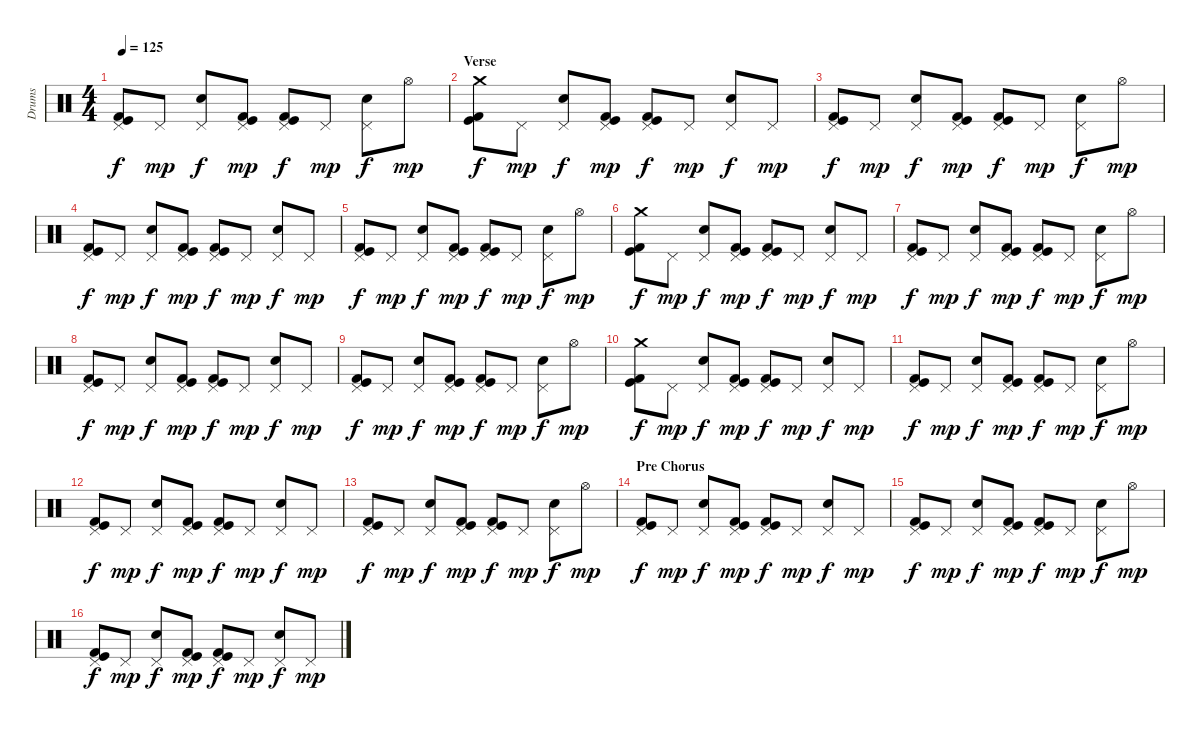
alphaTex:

\track ("Drums" "Drums") {instrument percussion}
\staff {score}
\articulation defaults
\ts (4 4)
\tempo 125
\clef neutral
\ks c
("Pedal Hi-Hat (hit)" "Kick (hit) 2" "Kick (hit)").8{dy f} "Pedal Hi-Hat (hit)".8{dy mp} ("Pedal Hi-Hat (hit)" "Electric Snare (hit)").8{dy f} ("Pedal Hi-Hat (hit)" "Kick (hit) 2" "Kick (hit)").8{dy mp} ("Pedal Hi-Hat (hit)" "Kick (hit) 2" "Kick (hit)").8{dy f} "Pedal Hi-Hat (hit)".8{dy mp} ("Pedal Hi-Hat (hit)" "Electric Snare (hit)").8{dy f} "Hi-Hat (open)".8{dy mp} |
\section ("" "Verse")
("Crash medium (hit)" "Kick (hit) 2" "Kick (hit)").8{dy f} "Pedal Hi-Hat (hit)".8{dy mp} ("Pedal Hi-Hat (hit)" "Electric Snare (hit)").8{dy f} ("Pedal Hi-Hat (hit)" "Kick (hit) 2" "Kick (hit)").8{dy mp} ("Pedal Hi-Hat (hit)" "Kick (hit) 2" "Kick (hit)").8{dy f} "Pedal Hi-Hat (hit)".8{dy mp} ("Pedal Hi-Hat (hit)" "Electric Snare (hit)").8{dy f} "Pedal Hi-Hat (hit)".8{dy mp} |
("Pedal Hi-Hat (hit)" "Kick (hit) 2" "Kick (hit)").8{dy f} "Pedal Hi-Hat (hit)".8{dy mp} ("Pedal Hi-Hat (hit)" "Electric Snare (hit)").8{dy f} ("Pedal Hi-Hat (hit)" "Kick (hit) 2" "Kick (hit)").8{dy mp} ("Pedal Hi-Hat (hit)" "Kick (hit) 2" "Kick (hit)").8{dy f} "Pedal Hi-Hat (hit)".8{dy mp} ("Pedal Hi-Hat (hit)" "Electric Snare (hit)").8{dy f} "Hi-Hat (open)".8{dy mp} |
("Pedal Hi-Hat (hit)" "Kick (hit) 2" "Kick (hit)").8{dy f} "Pedal Hi-Hat (hit)".8{dy mp} ("Pedal Hi-Hat (hit)" "Electric Snare (hit)").8{dy f} ("Pedal Hi-Hat (hit)" "Kick (hit) 2" "Kick (hit)").8{dy mp} ("Pedal Hi-Hat (hit)" "Kick (hit) 2" "Kick (hit)").8{dy f} "Pedal Hi-Hat (hit)".8{dy mp} ("Pedal Hi-Hat (hit)" "Electric Snare (hit)").8{dy f} "Pedal Hi-Hat (hit)".8{dy mp} |
("Pedal Hi-Hat (hit)" "Kick (hit) 2" "Kick (hit)").8{dy f} "Pedal Hi-Hat (hit)".8{dy mp} ("Pedal Hi-Hat (hit)" "Electric Snare (hit)").8{dy f} ("Pedal Hi-Hat (hit)" "Kick (hit) 2" "Kick (hit)").8{dy mp} ("Pedal Hi-Hat (hit)" "Kick (hit) 2" "Kick (hit)").8{dy f} "Pedal Hi-Hat (hit)".8{dy mp} ("Pedal Hi-Hat (hit)" "Electric Snare (hit)").8{dy f} "Hi-Hat (open)".8{dy mp} |
("Crash medium (hit)" "Kick (hit) 2" "Kick (hit)").8{dy f} "Pedal Hi-Hat (hit)".8{dy mp} ("Pedal Hi-Hat (hit)" "Electric Snare (hit)").8{dy f} ("Pedal Hi-Hat (hit)" "Kick (hit) 2" "Kick (hit)").8{dy mp} ("Pedal Hi-Hat (hit)" "Kick (hit) 2" "Kick (hit)").8{dy f} "Pedal Hi-Hat (hit)".8{dy mp} ("Pedal Hi-Hat (hit)" "Electric Snare (hit)").8{dy f} "Pedal Hi-Hat (hit)".8{dy mp} |
("Pedal Hi-Hat (hit)" "Kick (hit) 2" "Kick (hit)").8{dy f} "Pedal Hi-Hat (hit)".8{dy mp} ("Pedal Hi-Hat (hit)" "Electric Snare (hit)").8{dy f} ("Pedal Hi-Hat (hit)" "Kick (hit) 2" "Kick (hit)").8{dy mp} ("Pedal Hi-Hat (hit)" "Kick (hit) 2" "Kick (hit)").8{dy f} "Pedal Hi-Hat (hit)".8{dy mp} ("Pedal Hi-Hat (hit)" "Electric Snare (hit)").8{dy f} "Hi-Hat (open)".8{dy mp} |
("Pedal Hi-Hat (hit)" "Kick (hit) 2" "Kick (hit)").8{dy f} "Pedal Hi-Hat (hit)".8{dy mp} ("Pedal Hi-Hat (hit)" "Electric Snare (hit)").8{dy f} ("Pedal Hi-Hat (hit)" "Kick (hit) 2" "Kick (hit)").8{dy mp} ("Pedal Hi-Hat (hit)" "Kick (hit) 2" "Kick (hit)").8{dy f} "Pedal Hi-Hat (hit)".8{dy mp} ("Pedal Hi-Hat (hit)" "Electric Snare (hit)").8{dy f} "Pedal Hi-Hat (hit)".8{dy mp} |
("Pedal Hi-Hat (hit)" "Kick (hit) 2" "Kick (hit)").8{dy f} "Pedal Hi-Hat (hit)".8{dy mp} ("Pedal Hi-Hat (hit)" "Electric Snare (hit)").8{dy f} ("Pedal Hi-Hat (hit)" "Kick (hit) 2" "Kick (hit)").8{dy mp} ("Pedal Hi-Hat (hit)" "Kick (hit) 2" "Kick (hit)").8{dy f} "Pedal Hi-Hat (hit)".8{dy mp} ("Pedal Hi-Hat (hit)" "Electric Snare (hit)").8{dy f} "Hi-Hat (open)".8{dy mp} |
("Crash medium (hit)" "Kick (hit) 2" "Kick (hit)").8{dy f} "Pedal Hi-Hat (hit)".8{dy mp} ("Pedal Hi-Hat (hit)" "Electric Snare (hit)").8{dy f} ("Pedal Hi-Hat (hit)" "Kick (hit) 2" "Kick (hit)").8{dy mp} ("Pedal Hi-Hat (hit)" "Kick (hit) 2" "Kick (hit)").8{dy f} "Pedal Hi-Hat (hit)".8{dy mp} ("Pedal Hi-Hat (hit)" "Electric Snare (hit)").8{dy f} "Pedal Hi-Hat (hit)".8{dy mp} |
("Pedal Hi-Hat (hit)" "Kick (hit) 2" "Kick (hit)").8{dy f} "Pedal Hi-Hat (hit)".8{dy mp} ("Pedal Hi-Hat (hit)" "Electric Snare (hit)").8{dy f} ("Pedal Hi-Hat (hit)" "Kick (hit) 2" "Kick (hit)").8{dy mp} ("Pedal Hi-Hat (hit)" "Kick (hit) 2" "Kick (hit)").8{dy f} "Pedal Hi-Hat (hit)".8{dy mp} ("Pedal Hi-Hat (hit)" "Electric Snare (hit)").8{dy f} "Hi-Hat (open)".8{dy mp} |
("Pedal Hi-Hat (hit)" "Kick (hit) 2" "Kick (hit)").8{dy f} "Pedal Hi-Hat (hit)".8{dy mp} ("Pedal Hi-Hat (hit)" "Electric Snare (hit)").8{dy f} ("Pedal Hi-Hat (hit)" "Kick (hit) 2" "Kick (hit)").8{dy mp} ("Pedal Hi-Hat (hit)" "Kick (hit) 2" "Kick (hit)").8{dy f} "Pedal Hi-Hat (hit)".8{dy mp} ("Pedal Hi-Hat (hit)" "Electric Snare (hit)").8{dy f} "Pedal Hi-Hat (hit)".8{dy mp} |
("Pedal Hi-Hat (hit)" "Kick (hit) 2" "Kick (hit)").8{dy f} "Pedal Hi-Hat (hit)".8{dy mp} ("Pedal Hi-Hat (hit)" "Electric Snare (hit)").8{dy f} ("Pedal Hi-Hat (hit)" "Kick (hit) 2" "Kick (hit)").8{dy mp} ("Pedal Hi-Hat (hit)" "Kick (hit) 2" "Kick (hit)").8{dy f} "Pedal Hi-Hat (hit)".8{dy mp} ("Pedal Hi-Hat (hit)" "Electric Snare (hit)").8{dy f} "Hi-Hat (open)".8{dy mp} |
\section ("" "Pre Chorus")
("Pedal Hi-Hat (hit)" "Kick (hit) 2" "Kick (hit)").8{dy f} "Pedal Hi-Hat (hit)".8{dy mp} ("Pedal Hi-Hat (hit)" "Electric Snare (hit)").8{dy f} ("Pedal Hi-Hat (hit)" "Kick (hit) 2" "Kick (hit)").8{dy mp} ("Pedal Hi-Hat (hit)" "Kick (hit) 2" "Kick (hit)").8{dy f} "Pedal Hi-Hat (hit)".8{dy mp} ("Pedal Hi-Hat (hit)" "Electric Snare (hit)").8{dy f} "Pedal Hi-Hat (hit)".8{dy mp} |
("Pedal Hi-Hat (hit)" "Kick (hit) 2" "Kick (hit)").8{dy f} "Pedal Hi-Hat (hit)".8{dy mp} ("Pedal Hi-Hat (hit)" "Electric Snare (hit)").8{dy f} ("Pedal Hi-Hat (hit)" "Kick (hit) 2" "Kick (hit)").8{dy mp} ("Pedal Hi-Hat (hit)" "Kick (hit) 2" "Kick (hit)").8{dy f} "Pedal Hi-Hat (hit)".8{dy mp} ("Pedal Hi-Hat (hit)" "Electric Snare (hit)").8{dy f} "Hi-Hat (open)".8{dy mp} |
("Pedal Hi-Hat (hit)" "Kick (hit) 2" "Kick (hit)").8{dy f} "Pedal Hi-Hat (hit)".8{dy mp} ("Pedal Hi-Hat (hit)" "Electric Snare (hit)").8{dy f} ("Pedal Hi-Hat (hit)" "Kick (hit) 2" "Kick (hit)").8{dy mp} ("Pedal Hi-Hat (hit)" "Kick (hit) 2" "Kick (hit)").8{dy f} "Pedal Hi-Hat (hit)".8{dy mp} ("Pedal Hi-Hat (hit)" "Electric Snare (hit)").8{dy f} "Pedal Hi-Hat (hit)".8{dy mp}
